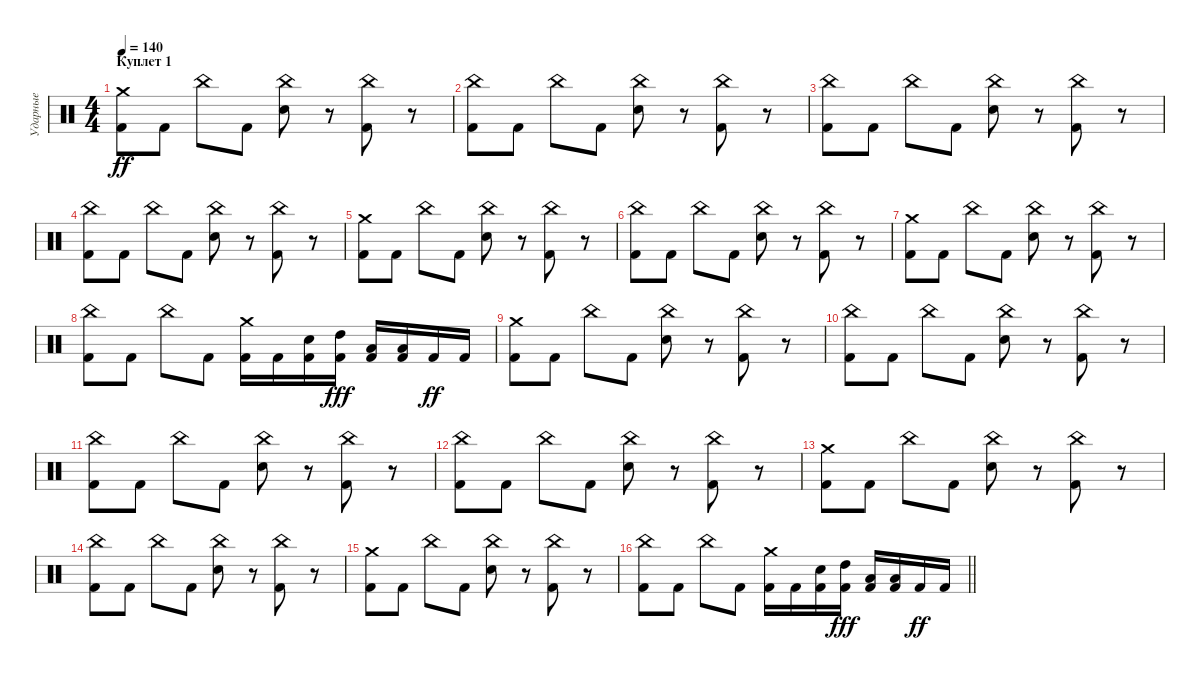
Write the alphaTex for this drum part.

\track ("Ударные" "Ударные") {instrument percussion}
\staff {score}
\articulation defaults
\ts (4 4)
\section ("" "Куплет 1")
\tempo 140
\clef neutral
\ks c
("Kick (hit) 2" "Crash medium (hit)").8{dy ff} "Kick (hit) 2".8 "China (hit)".8 "Kick (hit) 2".8 ("Electric Snare (hit)" "China (hit)").8 r.8 ("China (hit)" "Kick (hit) 2").8 r.8 |
("Kick (hit) 2" "China (hit)").8 "Kick (hit) 2".8 "China (hit)".8 "Kick (hit) 2".8 ("Electric Snare (hit)" "China (hit)").8 r.8 ("China (hit)" "Kick (hit) 2").8 r.8 |
("Kick (hit) 2" "China (hit)").8 "Kick (hit) 2".8 "China (hit)".8 "Kick (hit) 2".8 ("Electric Snare (hit)" "China (hit)").8 r.8 ("China (hit)" "Kick (hit) 2").8 r.8 |
("Kick (hit) 2" "China (hit)").8 "Kick (hit) 2".8 "China (hit)".8 "Kick (hit) 2".8 ("Electric Snare (hit)" "China (hit)").8 r.8 ("China (hit)" "Kick (hit) 2").8 r.8 |
("Kick (hit) 2" "Crash medium (hit)").8 "Kick (hit) 2".8 "China (hit)".8 "Kick (hit) 2".8 ("Electric Snare (hit)" "China (hit)").8 r.8 ("China (hit)" "Kick (hit) 2").8 r.8 |
("Kick (hit) 2" "China (hit)").8 "Kick (hit) 2".8 "China (hit)".8 "Kick (hit) 2".8 ("Electric Snare (hit)" "China (hit)").8 r.8 ("China (hit)" "Kick (hit) 2").8 r.8 |
("Kick (hit) 2" "Crash medium (hit)").8 "Kick (hit) 2".8 "China (hit)".8 "Kick (hit) 2".8 ("Electric Snare (hit)" "China (hit)").8 r.8 ("China (hit)" "Kick (hit) 2").8 r.8 |
("Kick (hit) 2" "China (hit)").8 "Kick (hit) 2".8 "China (hit)".8 "Kick (hit) 2".8 ("Kick (hit) 2" "Crash medium (hit)").16 "Kick (hit) 2".16 ("Kick (hit) 2" "Electric Snare (hit)").16 ("Kick (hit) 2" "High Tom (hit)").16{dy fff} ("Kick (hit) 2" "Low Tom (hit)").16 ("Kick (hit) 2" "Low Tom (hit)").16 "Kick (hit) 2".16{dy ff} "Kick (hit) 2".16 |
("Kick (hit) 2" "Crash medium (hit)").8 "Kick (hit) 2".8 "China (hit)".8 "Kick (hit) 2".8 ("Electric Snare (hit)" "China (hit)").8 r.8 ("China (hit)" "Kick (hit) 2").8 r.8 |
("Kick (hit) 2" "China (hit)").8 "Kick (hit) 2".8 "China (hit)".8 "Kick (hit) 2".8 ("Electric Snare (hit)" "China (hit)").8 r.8 ("China (hit)" "Kick (hit) 2").8 r.8 |
("Kick (hit) 2" "China (hit)").8 "Kick (hit) 2".8 "China (hit)".8 "Kick (hit) 2".8 ("Electric Snare (hit)" "China (hit)").8 r.8 ("China (hit)" "Kick (hit) 2").8 r.8 |
("Kick (hit) 2" "China (hit)").8 "Kick (hit) 2".8 "China (hit)".8 "Kick (hit) 2".8 ("Electric Snare (hit)" "China (hit)").8 r.8 ("China (hit)" "Kick (hit) 2").8 r.8 |
("Kick (hit) 2" "Crash medium (hit)").8 "Kick (hit) 2".8 "China (hit)".8 "Kick (hit) 2".8 ("Electric Snare (hit)" "China (hit)").8 r.8 ("China (hit)" "Kick (hit) 2").8 r.8 |
("Kick (hit) 2" "China (hit)").8 "Kick (hit) 2".8 "China (hit)".8 "Kick (hit) 2".8 ("Electric Snare (hit)" "China (hit)").8 r.8 ("China (hit)" "Kick (hit) 2").8 r.8 |
("Kick (hit) 2" "Crash medium (hit)").8 "Kick (hit) 2".8 "China (hit)".8 "Kick (hit) 2".8 ("Electric Snare (hit)" "China (hit)").8 r.8 ("China (hit)" "Kick (hit) 2").8 r.8 |
\barLineRight lightlight
("Kick (hit) 2" "China (hit)").8 "Kick (hit) 2".8 "China (hit)".8 "Kick (hit) 2".8 ("Kick (hit) 2" "Crash medium (hit)").16 "Kick (hit) 2".16 ("Kick (hit) 2" "Electric Snare (hit)").16 ("Kick (hit) 2" "High Tom (hit)").16{dy fff} ("Kick (hit) 2" "Low Tom (hit)").16 ("Kick (hit) 2" "Low Tom (hit)").16 "Kick (hit) 2".16{dy ff} "Kick (hit) 2".16
